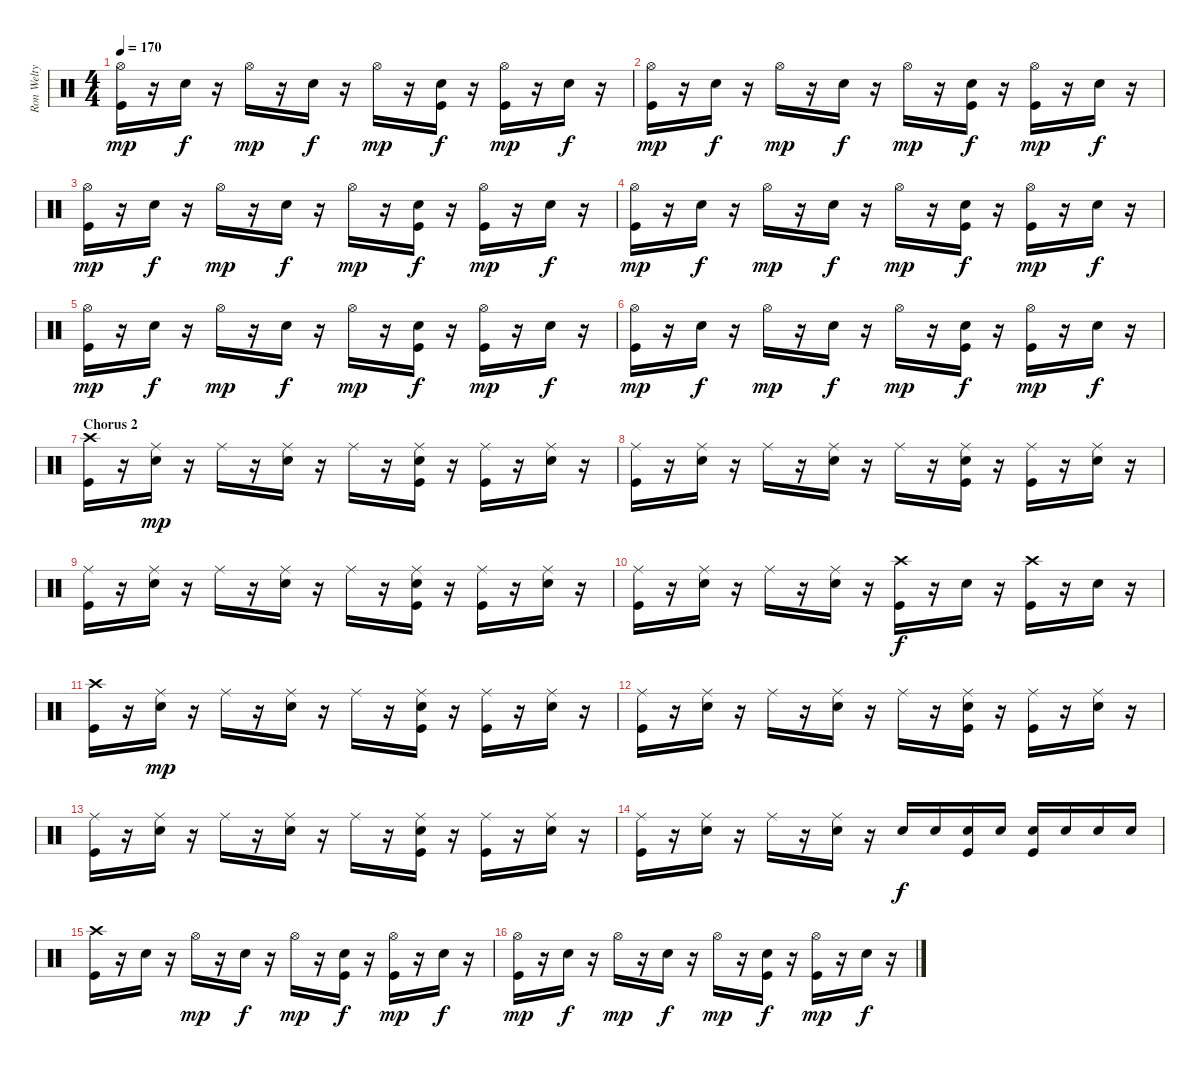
\track ("Ron Welty" "Ron Welty") {instrument percussion}
\staff {score}
\articulation defaults
\ts (4 4)
\tempo 170
\clef neutral
\ks c
("Hi-Hat (open)" "Kick (hit)").16{dy mp} r.16 "Snare (hit) 2".16{dy f} r.16 "Hi-Hat (open)".16{dy mp} r.16 "Snare (hit) 2".16{dy f} r.16 "Hi-Hat (open)".16{dy mp} r.16 ("Snare (hit) 2" "Kick (hit)").16{dy f} r.16 ("Hi-Hat (open)" "Kick (hit)").16{dy mp} r.16 "Snare (hit) 2".16{dy f} r.16 |
("Hi-Hat (open)" "Kick (hit)").16{dy mp} r.16 "Snare (hit) 2".16{dy f} r.16 "Hi-Hat (open)".16{dy mp} r.16 "Snare (hit) 2".16{dy f} r.16 "Hi-Hat (open)".16{dy mp} r.16 ("Snare (hit) 2" "Kick (hit)").16{dy f} r.16 ("Hi-Hat (open)" "Kick (hit)").16{dy mp} r.16 "Snare (hit) 2".16{dy f} r.16 |
("Hi-Hat (open)" "Kick (hit)").16{dy mp} r.16 "Snare (hit) 2".16{dy f} r.16 "Hi-Hat (open)".16{dy mp} r.16 "Snare (hit) 2".16{dy f} r.16 "Hi-Hat (open)".16{dy mp} r.16 ("Snare (hit) 2" "Kick (hit)").16{dy f} r.16 ("Hi-Hat (open)" "Kick (hit)").16{dy mp} r.16 "Snare (hit) 2".16{dy f} r.16 |
("Hi-Hat (open)" "Kick (hit)").16{dy mp} r.16 "Snare (hit) 2".16{dy f} r.16 "Hi-Hat (open)".16{dy mp} r.16 "Snare (hit) 2".16{dy f} r.16 "Hi-Hat (open)".16{dy mp} r.16 ("Snare (hit) 2" "Kick (hit)").16{dy f} r.16 ("Hi-Hat (open)" "Kick (hit)").16{dy mp} r.16 "Snare (hit) 2".16{dy f} r.16 |
("Hi-Hat (open)" "Kick (hit)").16{dy mp} r.16 "Snare (hit) 2".16{dy f} r.16 "Hi-Hat (open)".16{dy mp} r.16 "Snare (hit) 2".16{dy f} r.16 "Hi-Hat (open)".16{dy mp} r.16 ("Snare (hit) 2" "Kick (hit)").16{dy f} r.16 ("Hi-Hat (open)" "Kick (hit)").16{dy mp} r.16 "Snare (hit) 2".16{dy f} r.16 |
("Hi-Hat (open)" "Kick (hit)").16{dy mp} r.16 "Snare (hit) 2".16{dy f} r.16 "Hi-Hat (open)".16{dy mp} r.16 "Snare (hit) 2".16{dy f} r.16 "Hi-Hat (open)".16{dy mp} r.16 ("Snare (hit) 2" "Kick (hit)").16{dy f} r.16 ("Hi-Hat (open)" "Kick (hit)").16{dy mp} r.16 "Snare (hit) 2".16{dy f} r.16 |
\section ("" "Chorus 2")
("Crash high (hit)" "Kick (hit)").16 r.16 ("Ride (middle)" "Snare (hit) 2").16{dy mp} r.16 "Ride (middle)".16 r.16 ("Ride (middle)" "Snare (hit) 2").16 r.16 "Ride (middle)".16 r.16 ("Ride (middle)" "Snare (hit) 2" "Kick (hit)").16 r.16 ("Ride (middle)" "Kick (hit)").16 r.16 ("Ride (middle)" "Snare (hit) 2").16 r.16 |
("Ride (middle)" "Kick (hit)").16 r.16 ("Ride (middle)" "Snare (hit) 2").16 r.16 "Ride (middle)".16 r.16 ("Ride (middle)" "Snare (hit) 2").16 r.16 "Ride (middle)".16 r.16 ("Ride (middle)" "Snare (hit) 2" "Kick (hit)").16 r.16 ("Ride (middle)" "Kick (hit)").16 r.16 ("Ride (middle)" "Snare (hit) 2").16 r.16 |
("Ride (middle)" "Kick (hit)").16 r.16 ("Ride (middle)" "Snare (hit) 2").16 r.16 "Ride (middle)".16 r.16 ("Ride (middle)" "Snare (hit) 2").16 r.16 "Ride (middle)".16 r.16 ("Ride (middle)" "Snare (hit) 2" "Kick (hit)").16 r.16 ("Ride (middle)" "Kick (hit)").16 r.16 ("Ride (middle)" "Snare (hit) 2").16 r.16 |
("Ride (middle)" "Kick (hit)").16 r.16 ("Ride (middle)" "Snare (hit) 2").16 r.16 "Ride (middle)".16 r.16 ("Ride (middle)" "Snare (hit) 2").16 r.16 ("Crash high (hit)" "Kick (hit)").16{dy f} r.16 "Snare (hit) 2".16 r.16 ("Crash high (hit)" "Kick (hit)").16 r.16 "Snare (hit) 2".16 r.16 |
("Crash high (hit)" "Kick (hit)").16 r.16 ("Ride (middle)" "Snare (hit) 2").16{dy mp} r.16 "Ride (middle)".16 r.16 ("Ride (middle)" "Snare (hit) 2").16 r.16 "Ride (middle)".16 r.16 ("Ride (middle)" "Snare (hit) 2" "Kick (hit)").16 r.16 ("Ride (middle)" "Kick (hit)").16 r.16 ("Ride (middle)" "Snare (hit) 2").16 r.16 |
("Ride (middle)" "Kick (hit)").16 r.16 ("Ride (middle)" "Snare (hit) 2").16 r.16 "Ride (middle)".16 r.16 ("Ride (middle)" "Snare (hit) 2").16 r.16 "Ride (middle)".16 r.16 ("Ride (middle)" "Snare (hit) 2" "Kick (hit)").16 r.16 ("Ride (middle)" "Kick (hit)").16 r.16 ("Ride (middle)" "Snare (hit) 2").16 r.16 |
("Ride (middle)" "Kick (hit)").16 r.16 ("Ride (middle)" "Snare (hit) 2").16 r.16 "Ride (middle)".16 r.16 ("Ride (middle)" "Snare (hit) 2").16 r.16 "Ride (middle)".16 r.16 ("Ride (middle)" "Snare (hit) 2" "Kick (hit)").16 r.16 ("Ride (middle)" "Kick (hit)").16 r.16 ("Ride (middle)" "Snare (hit) 2").16 r.16 |
("Ride (middle)" "Kick (hit)").16 r.16 ("Ride (middle)" "Snare (hit) 2").16 r.16 "Ride (middle)".16 r.16 ("Ride (middle)" "Snare (hit) 2").16 r.16 "Snare (hit) 2".16{dy f} "Snare (hit) 2".16 ("Snare (hit) 2" "Kick (hit)").16 "Snare (hit) 2".16 ("Snare (hit) 2" "Kick (hit)").16 "Snare (hit) 2".16 "Snare (hit) 2".16 "Snare (hit) 2".16 |
("Crash high (hit)" "Kick (hit)").16 r.16 "Snare (hit) 2".16 r.16 "Hi-Hat (open)".16{dy mp} r.16 "Snare (hit) 2".16{dy f} r.16 "Hi-Hat (open)".16{dy mp} r.16 ("Snare (hit) 2" "Kick (hit)").16{dy f} r.16 ("Hi-Hat (open)" "Kick (hit)").16{dy mp} r.16 "Snare (hit) 2".16{dy f} r.16 |
("Hi-Hat (open)" "Kick (hit)").16{dy mp} r.16 "Snare (hit) 2".16{dy f} r.16 "Hi-Hat (open)".16{dy mp} r.16 "Snare (hit) 2".16{dy f} r.16 "Hi-Hat (open)".16{dy mp} r.16 ("Snare (hit) 2" "Kick (hit)").16{dy f} r.16 ("Hi-Hat (open)" "Kick (hit)").16{dy mp} r.16 "Snare (hit) 2".16{dy f} r.16
